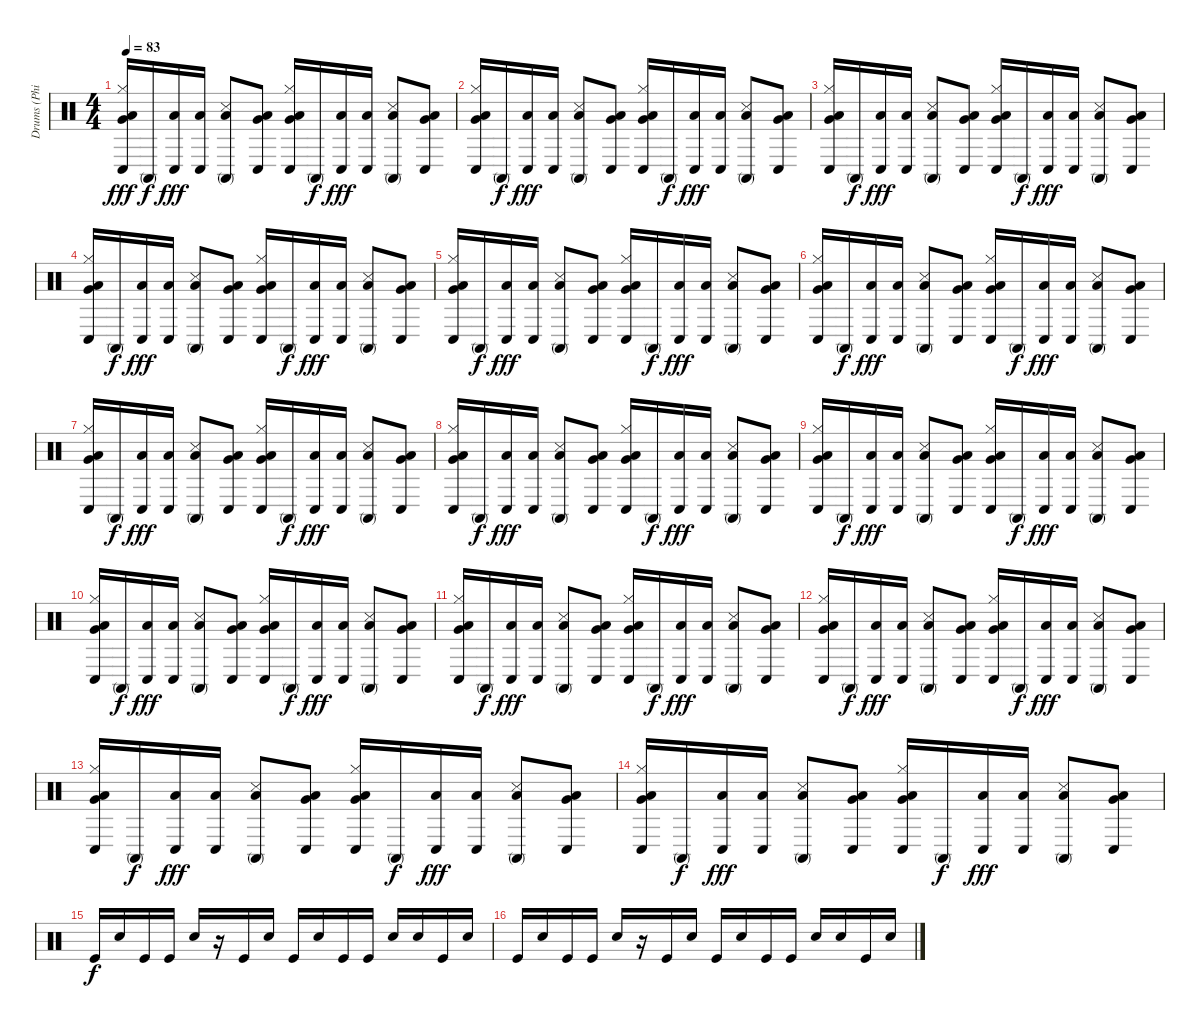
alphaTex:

\track ("Drums (Phil)" "Drums (Phi") {instrument percussion}
\staff {score}
\articulation defaults
\ts (4 4)
\tempo 83
\clef neutral
\ks c
("Hi-Hat (closed)" "Conga low (hit)" "Low Floor Tom (hit)" "Very Low Tom (hit)").16{dy fff} "Conga high (mute)".16{dy f} ("Conga low (hit)" "Low Tom (hit)").16{dy fff} ("Conga low (hit)" "Low Tom (hit)").16 ("Conga high (mute)" "Snare (side stick) 3" "Low Tom (hit)").8 ("Conga low (hit)" "Low Floor Tom (hit)" "Very Low Tom (hit)").8 ("Hi-Hat (closed)" "Conga low (hit)" "Low Floor Tom (hit)" "Very Low Tom (hit)").16 "Conga high (mute)".16{dy f} ("Conga low (hit)" "Low Tom (hit)").16{dy fff} ("Conga low (hit)" "Low Tom (hit)").16 ("Conga high (mute)" "Snare (side stick) 3" "Low Tom (hit)").8 ("Conga low (hit)" "Low Floor Tom (hit)" "Very Low Tom (hit)").8 |
("Hi-Hat (closed)" "Conga low (hit)" "Low Floor Tom (hit)" "Very Low Tom (hit)").16 "Conga high (mute)".16{dy f} ("Conga low (hit)" "Low Tom (hit)").16{dy fff} ("Conga low (hit)" "Low Tom (hit)").16 ("Conga high (mute)" "Snare (side stick) 3" "Low Tom (hit)").8 ("Conga low (hit)" "Low Floor Tom (hit)" "Very Low Tom (hit)").8 ("Hi-Hat (closed)" "Conga low (hit)" "Low Floor Tom (hit)" "Very Low Tom (hit)").16 "Conga high (mute)".16{dy f} ("Conga low (hit)" "Low Tom (hit)").16{dy fff} ("Conga low (hit)" "Low Tom (hit)").16 ("Conga high (mute)" "Snare (side stick) 3" "Low Tom (hit)").8 ("Conga low (hit)" "Low Floor Tom (hit)" "Very Low Tom (hit)").8 |
("Hi-Hat (closed)" "Conga low (hit)" "Low Floor Tom (hit)" "Very Low Tom (hit)").16 "Conga high (mute)".16{dy f} ("Conga low (hit)" "Low Tom (hit)").16{dy fff} ("Conga low (hit)" "Low Tom (hit)").16 ("Conga high (mute)" "Snare (side stick) 3" "Low Tom (hit)").8 ("Conga low (hit)" "Low Floor Tom (hit)" "Very Low Tom (hit)").8 ("Hi-Hat (closed)" "Conga low (hit)" "Low Floor Tom (hit)" "Very Low Tom (hit)").16 "Conga high (mute)".16{dy f} ("Conga low (hit)" "Low Tom (hit)").16{dy fff} ("Conga low (hit)" "Low Tom (hit)").16 ("Conga high (mute)" "Snare (side stick) 3" "Low Tom (hit)").8 ("Conga low (hit)" "Low Floor Tom (hit)" "Very Low Tom (hit)").8 |
("Hi-Hat (closed)" "Conga low (hit)" "Low Floor Tom (hit)" "Very Low Tom (hit)").16 "Conga high (mute)".16{dy f} ("Conga low (hit)" "Low Tom (hit)").16{dy fff} ("Conga low (hit)" "Low Tom (hit)").16 ("Conga high (mute)" "Snare (side stick) 3" "Low Tom (hit)").8 ("Conga low (hit)" "Low Floor Tom (hit)" "Very Low Tom (hit)").8 ("Hi-Hat (closed)" "Conga low (hit)" "Low Floor Tom (hit)" "Very Low Tom (hit)").16 "Conga high (mute)".16{dy f} ("Conga low (hit)" "Low Tom (hit)").16{dy fff} ("Conga low (hit)" "Low Tom (hit)").16 ("Conga high (mute)" "Snare (side stick) 3" "Low Tom (hit)").8 ("Conga low (hit)" "Low Floor Tom (hit)" "Very Low Tom (hit)").8 |
("Hi-Hat (closed)" "Conga low (hit)" "Low Floor Tom (hit)" "Very Low Tom (hit)").16 "Conga high (mute)".16{dy f} ("Conga low (hit)" "Low Tom (hit)").16{dy fff} ("Conga low (hit)" "Low Tom (hit)").16 ("Conga high (mute)" "Snare (side stick) 3" "Low Tom (hit)").8 ("Conga low (hit)" "Low Floor Tom (hit)" "Very Low Tom (hit)").8 ("Hi-Hat (closed)" "Conga low (hit)" "Low Floor Tom (hit)" "Very Low Tom (hit)").16 "Conga high (mute)".16{dy f} ("Conga low (hit)" "Low Tom (hit)").16{dy fff} ("Conga low (hit)" "Low Tom (hit)").16 ("Conga high (mute)" "Snare (side stick) 3" "Low Tom (hit)").8 ("Conga low (hit)" "Low Floor Tom (hit)" "Very Low Tom (hit)").8 |
("Hi-Hat (closed)" "Conga low (hit)" "Low Floor Tom (hit)" "Very Low Tom (hit)").16 "Conga high (mute)".16{dy f} ("Conga low (hit)" "Low Tom (hit)").16{dy fff} ("Conga low (hit)" "Low Tom (hit)").16 ("Conga high (mute)" "Snare (side stick) 3" "Low Tom (hit)").8 ("Conga low (hit)" "Low Floor Tom (hit)" "Very Low Tom (hit)").8 ("Hi-Hat (closed)" "Conga low (hit)" "Low Floor Tom (hit)" "Very Low Tom (hit)").16 "Conga high (mute)".16{dy f} ("Conga low (hit)" "Low Tom (hit)").16{dy fff} ("Conga low (hit)" "Low Tom (hit)").16 ("Conga high (mute)" "Snare (side stick) 3" "Low Tom (hit)").8 ("Conga low (hit)" "Low Floor Tom (hit)" "Very Low Tom (hit)").8 |
("Hi-Hat (closed)" "Conga low (hit)" "Low Floor Tom (hit)" "Very Low Tom (hit)").16 "Conga high (mute)".16{dy f} ("Conga low (hit)" "Low Tom (hit)").16{dy fff} ("Conga low (hit)" "Low Tom (hit)").16 ("Conga high (mute)" "Snare (side stick) 3" "Low Tom (hit)").8 ("Conga low (hit)" "Low Floor Tom (hit)" "Very Low Tom (hit)").8 ("Hi-Hat (closed)" "Conga low (hit)" "Low Floor Tom (hit)" "Very Low Tom (hit)").16 "Conga high (mute)".16{dy f} ("Conga low (hit)" "Low Tom (hit)").16{dy fff} ("Conga low (hit)" "Low Tom (hit)").16 ("Conga high (mute)" "Snare (side stick) 3" "Low Tom (hit)").8 ("Conga low (hit)" "Low Floor Tom (hit)" "Very Low Tom (hit)").8 |
("Hi-Hat (closed)" "Conga low (hit)" "Low Floor Tom (hit)" "Very Low Tom (hit)").16 "Conga high (mute)".16{dy f} ("Conga low (hit)" "Low Tom (hit)").16{dy fff} ("Conga low (hit)" "Low Tom (hit)").16 ("Conga high (mute)" "Snare (side stick) 3" "Low Tom (hit)").8 ("Conga low (hit)" "Low Floor Tom (hit)" "Very Low Tom (hit)").8 ("Hi-Hat (closed)" "Conga low (hit)" "Low Floor Tom (hit)" "Very Low Tom (hit)").16 "Conga high (mute)".16{dy f} ("Conga low (hit)" "Low Tom (hit)").16{dy fff} ("Conga low (hit)" "Low Tom (hit)").16 ("Conga high (mute)" "Snare (side stick) 3" "Low Tom (hit)").8 ("Conga low (hit)" "Low Floor Tom (hit)" "Very Low Tom (hit)").8 |
("Hi-Hat (closed)" "Conga low (hit)" "Low Floor Tom (hit)" "Very Low Tom (hit)").16 "Conga high (mute)".16{dy f} ("Conga low (hit)" "Low Tom (hit)").16{dy fff} ("Conga low (hit)" "Low Tom (hit)").16 ("Conga high (mute)" "Snare (side stick) 3" "Low Tom (hit)").8 ("Conga low (hit)" "Low Floor Tom (hit)" "Very Low Tom (hit)").8 ("Hi-Hat (closed)" "Conga low (hit)" "Low Floor Tom (hit)" "Very Low Tom (hit)").16 "Conga high (mute)".16{dy f} ("Conga low (hit)" "Low Tom (hit)").16{dy fff} ("Conga low (hit)" "Low Tom (hit)").16 ("Conga high (mute)" "Snare (side stick) 3" "Low Tom (hit)").8 ("Conga low (hit)" "Low Floor Tom (hit)" "Very Low Tom (hit)").8 |
("Hi-Hat (closed)" "Conga low (hit)" "Low Floor Tom (hit)" "Very Low Tom (hit)").16 "Conga high (mute)".16{dy f} ("Conga low (hit)" "Low Tom (hit)").16{dy fff} ("Conga low (hit)" "Low Tom (hit)").16 ("Conga high (mute)" "Snare (side stick) 3" "Low Tom (hit)").8 ("Conga low (hit)" "Low Floor Tom (hit)" "Very Low Tom (hit)").8 ("Hi-Hat (closed)" "Conga low (hit)" "Low Floor Tom (hit)" "Very Low Tom (hit)").16 "Conga high (mute)".16{dy f} ("Conga low (hit)" "Low Tom (hit)").16{dy fff} ("Conga low (hit)" "Low Tom (hit)").16 ("Conga high (mute)" "Snare (side stick) 3" "Low Tom (hit)").8 ("Conga low (hit)" "Low Floor Tom (hit)" "Very Low Tom (hit)").8 |
("Hi-Hat (closed)" "Conga low (hit)" "Low Floor Tom (hit)" "Very Low Tom (hit)").16 "Conga high (mute)".16{dy f} ("Conga low (hit)" "Low Tom (hit)").16{dy fff} ("Conga low (hit)" "Low Tom (hit)").16 ("Conga high (mute)" "Snare (side stick) 3" "Low Tom (hit)").8 ("Conga low (hit)" "Low Floor Tom (hit)" "Very Low Tom (hit)").8 ("Hi-Hat (closed)" "Conga low (hit)" "Low Floor Tom (hit)" "Very Low Tom (hit)").16 "Conga high (mute)".16{dy f} ("Conga low (hit)" "Low Tom (hit)").16{dy fff} ("Conga low (hit)" "Low Tom (hit)").16 ("Conga high (mute)" "Snare (side stick) 3" "Low Tom (hit)").8 ("Conga low (hit)" "Low Floor Tom (hit)" "Very Low Tom (hit)").8 |
("Hi-Hat (closed)" "Conga low (hit)" "Low Floor Tom (hit)" "Very Low Tom (hit)").16 "Conga high (mute)".16{dy f} ("Conga low (hit)" "Low Tom (hit)").16{dy fff} ("Conga low (hit)" "Low Tom (hit)").16 ("Conga high (mute)" "Snare (side stick) 3" "Low Tom (hit)").8 ("Conga low (hit)" "Low Floor Tom (hit)" "Very Low Tom (hit)").8 ("Hi-Hat (closed)" "Conga low (hit)" "Low Floor Tom (hit)" "Very Low Tom (hit)").16 "Conga high (mute)".16{dy f} ("Conga low (hit)" "Low Tom (hit)").16{dy fff} ("Conga low (hit)" "Low Tom (hit)").16 ("Conga high (mute)" "Snare (side stick) 3" "Low Tom (hit)").8 ("Conga low (hit)" "Low Floor Tom (hit)" "Very Low Tom (hit)").8 |
("Hi-Hat (closed)" "Conga low (hit)" "Low Floor Tom (hit)" "Very Low Tom (hit)").16 "Conga high (mute)".16{dy f} ("Conga low (hit)" "Low Tom (hit)").16{dy fff} ("Conga low (hit)" "Low Tom (hit)").16 ("Conga high (mute)" "Snare (side stick) 3" "Low Tom (hit)").8 ("Conga low (hit)" "Low Floor Tom (hit)" "Very Low Tom (hit)").8 ("Hi-Hat (closed)" "Conga low (hit)" "Low Floor Tom (hit)" "Very Low Tom (hit)").16 "Conga high (mute)".16{dy f} ("Conga low (hit)" "Low Tom (hit)").16{dy fff} ("Conga low (hit)" "Low Tom (hit)").16 ("Conga high (mute)" "Snare (side stick) 3" "Low Tom (hit)").8 ("Conga low (hit)" "Low Floor Tom (hit)" "Very Low Tom (hit)").8 |
("Hi-Hat (closed)" "Conga low (hit)" "Low Floor Tom (hit)" "Very Low Tom (hit)").16 "Conga high (mute)".16{dy f} ("Conga low (hit)" "Low Tom (hit)").16{dy fff} ("Conga low (hit)" "Low Tom (hit)").16 ("Conga high (mute)" "Snare (side stick) 3" "Low Tom (hit)").8 ("Conga low (hit)" "Low Floor Tom (hit)" "Very Low Tom (hit)").8 ("Hi-Hat (closed)" "Conga low (hit)" "Low Floor Tom (hit)" "Very Low Tom (hit)").16 "Conga high (mute)".16{dy f} ("Conga low (hit)" "Low Tom (hit)").16{dy fff} ("Conga low (hit)" "Low Tom (hit)").16 ("Conga high (mute)" "Snare (side stick) 3" "Low Tom (hit)").8 ("Conga low (hit)" "Low Floor Tom (hit)" "Very Low Tom (hit)").8 |
"Kick (hit)".16{dy f} "Snare (hit) 2".16 "Kick (hit)".16 "Kick (hit)".16 "Snare (hit) 2".16 r.16 "Kick (hit)".16 "Snare (hit) 2".16 "Kick (hit)".16 "Snare (hit) 2".16 "Kick (hit)".16 "Kick (hit)".16 "Snare (hit) 2".16 "Snare (hit) 2".16 "Kick (hit)".16 "Snare (hit) 2".16 |
"Kick (hit)".16 "Snare (hit) 2".16 "Kick (hit)".16 "Kick (hit)".16 "Snare (hit) 2".16 r.16 "Kick (hit)".16 "Snare (hit) 2".16 "Kick (hit)".16 "Snare (hit) 2".16 "Kick (hit)".16 "Kick (hit)".16 "Snare (hit) 2".16 "Snare (hit) 2".16 "Kick (hit)".16 "Snare (hit) 2".16
